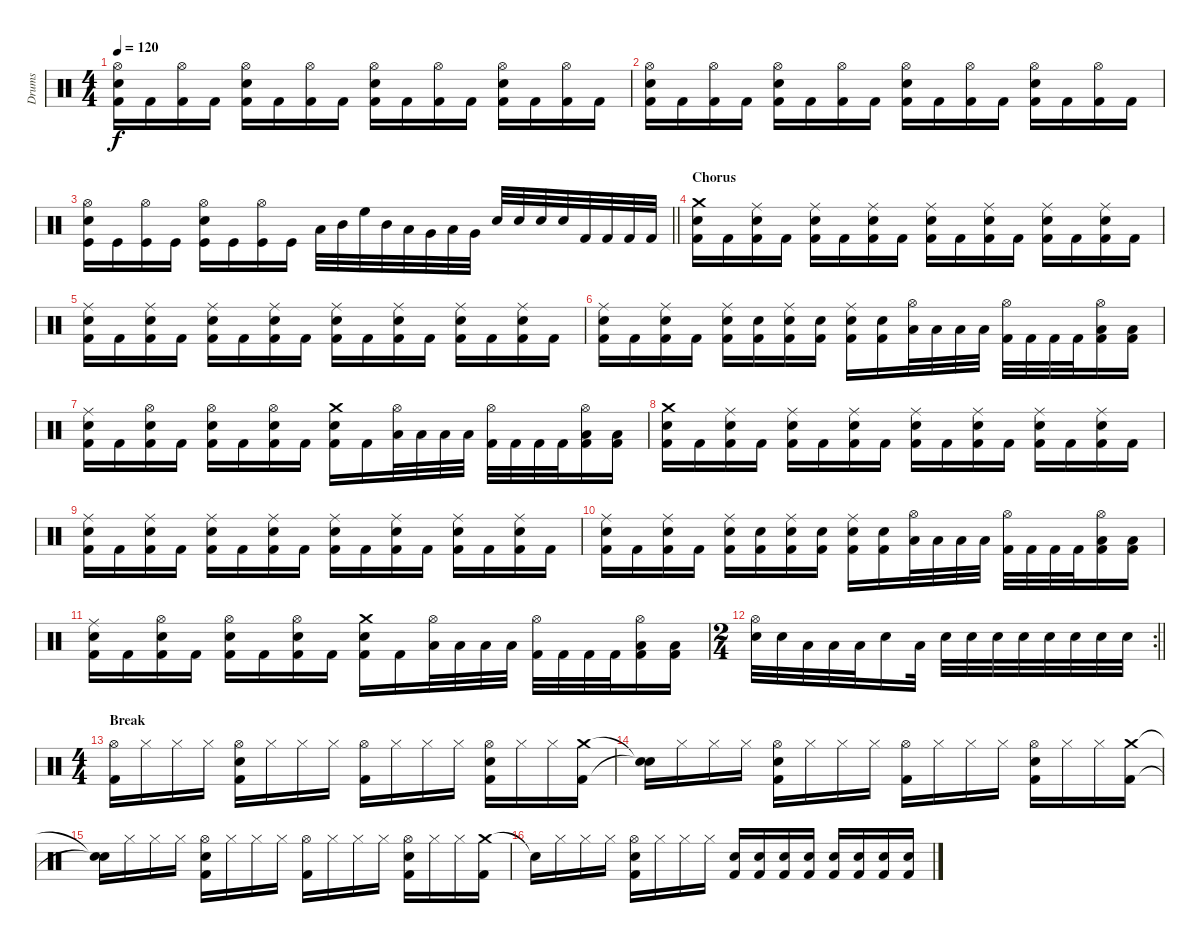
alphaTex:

\track ("Drums" "Drums") {instrument percussion}
\staff {score}
\articulation defaults
\ts (4 4)
\tempo 120
\clef neutral
\ks c
("Hi-Hat (open)" "Electric Snare (hit)" "Kick (hit) 2").16{dy f} "Kick (hit) 2".16 ("Hi-Hat (open)" "Kick (hit) 2").16 "Kick (hit) 2".16 ("Hi-Hat (open)" "Electric Snare (hit)" "Kick (hit) 2").16 "Kick (hit) 2".16 ("Hi-Hat (open)" "Kick (hit) 2").16 "Kick (hit) 2".16 ("Hi-Hat (open)" "Electric Snare (hit)" "Kick (hit) 2").16 "Kick (hit) 2".16 ("Hi-Hat (open)" "Kick (hit) 2").16 "Kick (hit) 2".16 ("Hi-Hat (open)" "Electric Snare (hit)" "Kick (hit) 2").16 "Kick (hit) 2".16 ("Hi-Hat (open)" "Kick (hit) 2").16 "Kick (hit) 2".16 |
("Hi-Hat (open)" "Electric Snare (hit)" "Kick (hit) 2").16 "Kick (hit) 2".16 ("Hi-Hat (open)" "Kick (hit) 2").16 "Kick (hit) 2".16 ("Hi-Hat (open)" "Electric Snare (hit)" "Kick (hit) 2").16 "Kick (hit) 2".16 ("Hi-Hat (open)" "Kick (hit) 2").16 "Kick (hit) 2".16 ("Hi-Hat (open)" "Electric Snare (hit)" "Kick (hit) 2").16 "Kick (hit) 2".16 ("Hi-Hat (open)" "Kick (hit) 2").16 "Kick (hit) 2".16 ("Hi-Hat (open)" "Electric Snare (hit)" "Kick (hit) 2").16 "Kick (hit) 2".16 ("Hi-Hat (open)" "Kick (hit) 2").16 "Kick (hit) 2".16 |
\barLineRight lightlight
("Hi-Hat (open)" "Electric Snare (hit)" "Kick (hit)").16 "Kick (hit)".16 ("Hi-Hat (open)" "Kick (hit)").16 "Kick (hit)".16 ("Hi-Hat (open)" "Electric Snare (hit)" "Kick (hit)").16 "Kick (hit)".16 ("Hi-Hat (open)" "Kick (hit)").16 "Kick (hit)".16 "Low Tom (hit)".32 "Mid Tom (hit)".32 "High Floor Tom (hit)".32 "Mid Tom (hit)".32 "Low Tom (hit)".32 "Very Low Tom (hit)".32 "Low Tom (hit)".32 "Very Low Tom (hit)".32 "Electric Snare (hit)".32 "Electric Snare (hit)".32 "Electric Snare (hit)".32 "Electric Snare (hit)".32 "Kick (hit) 2".32 "Kick (hit) 2".32 "Kick (hit) 2".32 "Kick (hit) 2".32 |
\section ("" "Chorus")
("Crash medium (hit)" "Electric Snare (hit)" "Kick (hit) 2").16 "Kick (hit) 2".16 ("Ride (middle)" "Electric Snare (hit)" "Kick (hit) 2").16 "Kick (hit) 2".16 ("Ride (middle)" "Electric Snare (hit)" "Kick (hit) 2").16 "Kick (hit) 2".16 ("Ride (middle)" "Electric Snare (hit)" "Kick (hit) 2").16 "Kick (hit) 2".16 ("Ride (middle)" "Electric Snare (hit)" "Kick (hit) 2").16 "Kick (hit) 2".16 ("Ride (middle)" "Electric Snare (hit)" "Kick (hit) 2").16 "Kick (hit) 2".16 ("Ride (middle)" "Electric Snare (hit)" "Kick (hit) 2").16 "Kick (hit) 2".16 ("Ride (middle)" "Electric Snare (hit)" "Kick (hit) 2").16 "Kick (hit) 2".16 |
("Ride (middle)" "Electric Snare (hit)" "Kick (hit) 2").16 "Kick (hit) 2".16 ("Ride (middle)" "Electric Snare (hit)" "Kick (hit) 2").16 "Kick (hit) 2".16 ("Ride (middle)" "Electric Snare (hit)" "Kick (hit) 2").16 "Kick (hit) 2".16 ("Ride (middle)" "Electric Snare (hit)" "Kick (hit) 2").16 "Kick (hit) 2".16 ("Ride (middle)" "Electric Snare (hit)" "Kick (hit) 2").16 "Kick (hit) 2".16 ("Ride (middle)" "Electric Snare (hit)" "Kick (hit) 2").16 "Kick (hit) 2".16 ("Ride (middle)" "Electric Snare (hit)" "Kick (hit) 2").16 "Kick (hit) 2".16 ("Ride (middle)" "Electric Snare (hit)" "Kick (hit) 2").16 "Kick (hit) 2".16 |
("Ride (middle)" "Electric Snare (hit)" "Kick (hit) 2").16 "Kick (hit) 2".16 ("Ride (middle)" "Electric Snare (hit)" "Kick (hit) 2").16 "Kick (hit) 2".16 ("Ride (middle)" "Electric Snare (hit)" "Kick (hit) 2").16 ("Electric Snare (hit)" "Kick (hit) 2").16 ("Ride (middle)" "Electric Snare (hit)" "Kick (hit) 2").16 ("Electric Snare (hit)" "Kick (hit) 2").16 ("Ride (middle)" "Electric Snare (hit)" "Kick (hit) 2").16 ("Electric Snare (hit)" "Kick (hit) 2").16 ("Hi-Hat (open)" "Low Tom (hit)").32 "Low Tom (hit)".32 "Low Tom (hit)".32 "Low Tom (hit)".32 ("Hi-Hat (open)" "Kick (hit) 2").32 "Kick (hit) 2".32 "Kick (hit) 2".32 "Kick (hit) 2".32 ("Hi-Hat (open)" "Low Tom (hit)" "Kick (hit) 2").16 ("Low Tom (hit)" "Kick (hit) 2").16 |
("Ride (middle)" "Electric Snare (hit)" "Kick (hit) 2").16 "Kick (hit) 2".16 ("Hi-Hat (open)" "Electric Snare (hit)" "Kick (hit) 2").16 "Kick (hit) 2".16 ("Hi-Hat (open)" "Electric Snare (hit)" "Kick (hit) 2").16 "Kick (hit) 2".16 ("Hi-Hat (open)" "Electric Snare (hit)" "Kick (hit) 2").16 "Kick (hit) 2".16 ("Crash medium (hit)" "Electric Snare (hit)" "Kick (hit) 2").16 "Kick (hit) 2".16 ("Hi-Hat (open)" "Low Tom (hit)").32 "Low Tom (hit)".32 "Low Tom (hit)".32 "Low Tom (hit)".32 ("Hi-Hat (open)" "Kick (hit) 2").32 "Kick (hit) 2".32 "Kick (hit) 2".32 "Kick (hit) 2".32 ("Hi-Hat (open)" "Low Tom (hit)" "Kick (hit) 2").16 ("Low Tom (hit)" "Kick (hit) 2").16 |
("Crash medium (hit)" "Electric Snare (hit)" "Kick (hit) 2").16 "Kick (hit) 2".16 ("Ride (middle)" "Electric Snare (hit)" "Kick (hit) 2").16 "Kick (hit) 2".16 ("Ride (middle)" "Electric Snare (hit)" "Kick (hit) 2").16 "Kick (hit) 2".16 ("Ride (middle)" "Electric Snare (hit)" "Kick (hit) 2").16 "Kick (hit) 2".16 ("Ride (middle)" "Electric Snare (hit)" "Kick (hit) 2").16 "Kick (hit) 2".16 ("Ride (middle)" "Electric Snare (hit)" "Kick (hit) 2").16 "Kick (hit) 2".16 ("Ride (middle)" "Electric Snare (hit)" "Kick (hit) 2").16 "Kick (hit) 2".16 ("Ride (middle)" "Electric Snare (hit)" "Kick (hit) 2").16 "Kick (hit) 2".16 |
("Ride (middle)" "Electric Snare (hit)" "Kick (hit) 2").16 "Kick (hit) 2".16 ("Ride (middle)" "Electric Snare (hit)" "Kick (hit) 2").16 "Kick (hit) 2".16 ("Ride (middle)" "Electric Snare (hit)" "Kick (hit) 2").16 "Kick (hit) 2".16 ("Ride (middle)" "Electric Snare (hit)" "Kick (hit) 2").16 "Kick (hit) 2".16 ("Ride (middle)" "Electric Snare (hit)" "Kick (hit) 2").16 "Kick (hit) 2".16 ("Ride (middle)" "Electric Snare (hit)" "Kick (hit) 2").16 "Kick (hit) 2".16 ("Ride (middle)" "Electric Snare (hit)" "Kick (hit) 2").16 "Kick (hit) 2".16 ("Ride (middle)" "Electric Snare (hit)" "Kick (hit) 2").16 "Kick (hit) 2".16 |
("Ride (middle)" "Electric Snare (hit)" "Kick (hit) 2").16 "Kick (hit) 2".16 ("Ride (middle)" "Electric Snare (hit)" "Kick (hit) 2").16 "Kick (hit) 2".16 ("Ride (middle)" "Electric Snare (hit)" "Kick (hit) 2").16 ("Electric Snare (hit)" "Kick (hit) 2").16 ("Ride (middle)" "Electric Snare (hit)" "Kick (hit) 2").16 ("Electric Snare (hit)" "Kick (hit) 2").16 ("Ride (middle)" "Electric Snare (hit)" "Kick (hit) 2").16 ("Electric Snare (hit)" "Kick (hit) 2").16 ("Hi-Hat (open)" "Low Tom (hit)").32 "Low Tom (hit)".32 "Low Tom (hit)".32 "Low Tom (hit)".32 ("Hi-Hat (open)" "Kick (hit) 2").32 "Kick (hit) 2".32 "Kick (hit) 2".32 "Kick (hit) 2".32 ("Hi-Hat (open)" "Low Tom (hit)" "Kick (hit) 2").16 ("Low Tom (hit)" "Kick (hit) 2").16 |
("Ride (middle)" "Electric Snare (hit)" "Kick (hit) 2").16 "Kick (hit) 2".16 ("Hi-Hat (open)" "Electric Snare (hit)" "Kick (hit) 2").16 "Kick (hit) 2".16 ("Hi-Hat (open)" "Electric Snare (hit)" "Kick (hit) 2").16 "Kick (hit) 2".16 ("Hi-Hat (open)" "Electric Snare (hit)" "Kick (hit) 2").16 "Kick (hit) 2".16 ("Crash medium (hit)" "Electric Snare (hit)" "Kick (hit) 2").16 "Kick (hit) 2".16 ("Hi-Hat (open)" "Low Tom (hit)").32 "Low Tom (hit)".32 "Low Tom (hit)".32 "Low Tom (hit)".32 ("Hi-Hat (open)" "Kick (hit) 2").32 "Kick (hit) 2".32 "Kick (hit) 2".32 "Kick (hit) 2".32 ("Hi-Hat (open)" "Low Tom (hit)" "Kick (hit) 2").16 ("Low Tom (hit)" "Kick (hit) 2").16 |
\rc 2
\ts (2 4)
\barLineRight lightlight
("Hi-Hat (open)" "Electric Snare (hit)").32 "Electric Snare (hit)".32 "Low Tom (hit)".32 "Low Tom (hit)".32 "Low Tom (hit)".32 "Electric Snare (hit)".16 "Low Tom (hit)".32 "Electric Snare (hit)".32 "Electric Snare (hit)".32 "Electric Snare (hit)".32 "Electric Snare (hit)".32 "Electric Snare (hit)".32 "Electric Snare (hit)".32 "Electric Snare (hit)".32 "Electric Snare (hit)".32 |
\ts (4 4)
\section ("" "Break")
("Hi-Hat (open)" "Kick (hit) 2").16 "Hi-Hat (closed)".16 "Hi-Hat (closed)".16 "Hi-Hat (closed)".16 ("Hi-Hat (open)" "Electric Snare (hit)" "Kick (hit) 2").16 "Hi-Hat (closed)".16 "Hi-Hat (closed)".16 "Hi-Hat (closed)".16 ("Hi-Hat (open)" "Kick (hit) 2").16 "Hi-Hat (closed)".16 "Hi-Hat (closed)".16 "Hi-Hat (closed)".16 ("Hi-Hat (open)" "Electric Snare (hit)" "Kick (hit) 2").16 "Hi-Hat (closed)".16 "Hi-Hat (closed)".16 ("Crash medium (hit)" "Kick (hit) 2").16 |
("Snare (hit)"{t} "Snare (hit)"{t}).16 "Hi-Hat (closed)".16 "Hi-Hat (closed)".16 "Hi-Hat (closed)".16 ("Hi-Hat (open)" "Electric Snare (hit)" "Kick (hit) 2").16 "Hi-Hat (closed)".16 "Hi-Hat (closed)".16 "Hi-Hat (closed)".16 ("Hi-Hat (open)" "Kick (hit) 2").16 "Hi-Hat (closed)".16 "Hi-Hat (closed)".16 "Hi-Hat (closed)".16 ("Hi-Hat (open)" "Electric Snare (hit)" "Kick (hit) 2").16 "Hi-Hat (closed)".16 "Hi-Hat (closed)".16 ("Crash medium (hit)" "Kick (hit) 2").16 |
("Snare (hit)"{t} "Snare (hit)"{t}).16 "Hi-Hat (closed)".16 "Hi-Hat (closed)".16 "Hi-Hat (closed)".16 ("Hi-Hat (open)" "Electric Snare (hit)" "Kick (hit) 2").16 "Hi-Hat (closed)".16 "Hi-Hat (closed)".16 "Hi-Hat (closed)".16 ("Hi-Hat (open)" "Kick (hit) 2").16 "Hi-Hat (closed)".16 "Hi-Hat (closed)".16 "Hi-Hat (closed)".16 ("Hi-Hat (open)" "Electric Snare (hit)" "Kick (hit) 2").16 "Hi-Hat (closed)".16 "Hi-Hat (closed)".16 ("Crash medium (hit)" "Kick (hit) 2").16 |
"Snare (hit)"{t}.16 "Hi-Hat (closed)".16 "Hi-Hat (closed)".16 "Hi-Hat (closed)".16 ("Hi-Hat (open)" "Electric Snare (hit)" "Kick (hit) 2").16 "Hi-Hat (closed)".16 "Hi-Hat (closed)".16 "Hi-Hat (closed)".16 ("Electric Snare (hit)" "Kick (hit) 2").16 ("Electric Snare (hit)" "Kick (hit) 2").16 ("Electric Snare (hit)" "Kick (hit) 2").16 ("Electric Snare (hit)" "Kick (hit) 2").16 ("Electric Snare (hit)" "Kick (hit) 2").16 ("Electric Snare (hit)" "Kick (hit) 2").16 ("Electric Snare (hit)" "Kick (hit) 2").16 ("Electric Snare (hit)" "Kick (hit) 2").16
